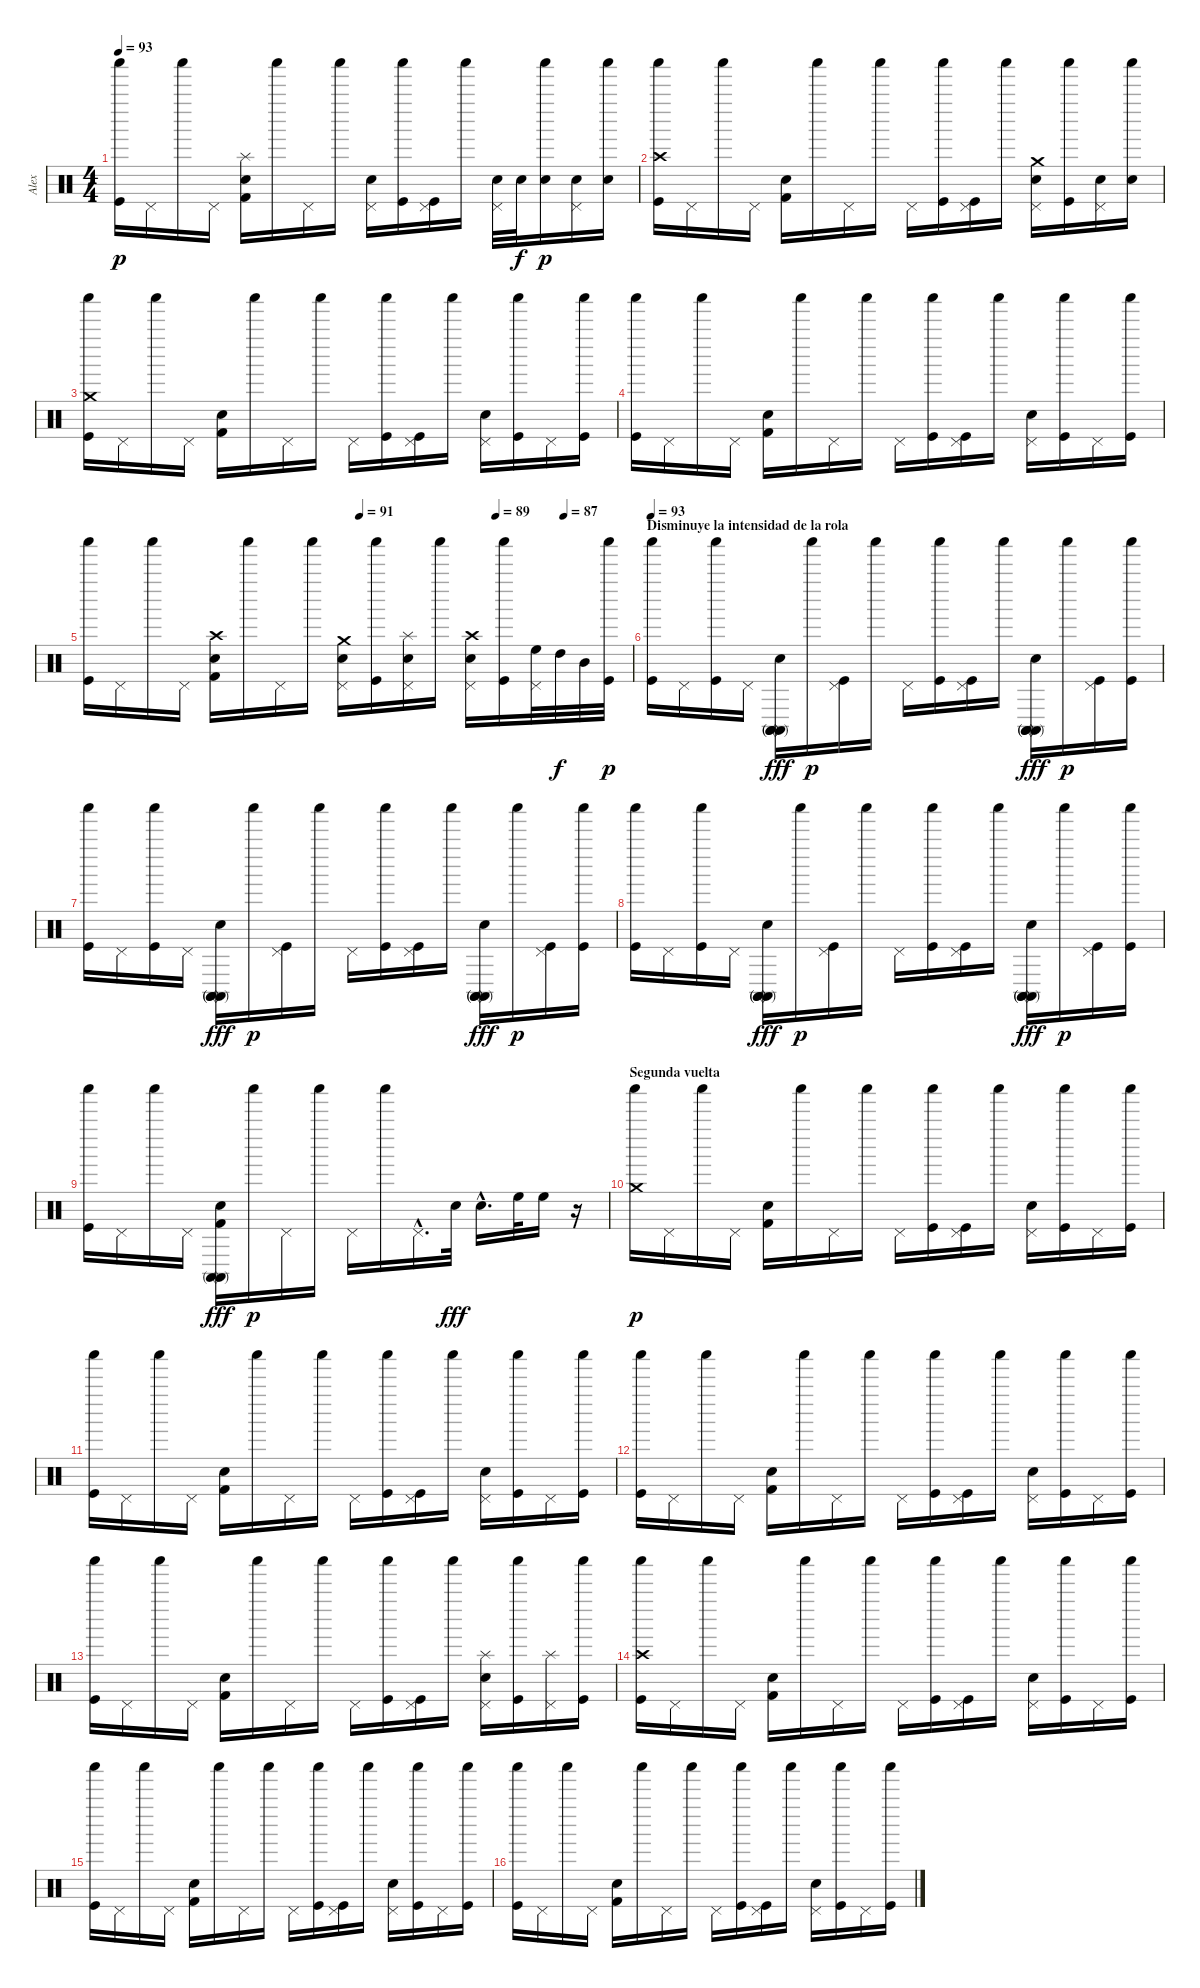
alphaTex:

\track ("Alex" "Alex") {instrument percussion}
\staff {score}
\articulation defaults
\ts (4 4)
\tempo 93
\clef neutral
\ks c
("Kick (hit)" "Shaker (hit)").16{dy p} "Pedal Hi-Hat (hit)".16 "Shaker (hit)".16 "Pedal Hi-Hat (hit)".16 ("Electric Snare (hit)" "Kick (hit) 2" "Splash (hit)").16 "Shaker (hit)".16 "Pedal Hi-Hat (hit)".16 "Shaker (hit)".16 ("Electric Snare (hit)" "Pedal Hi-Hat (hit)").16 ("Kick (hit)" "Shaker (hit)").16 ("Kick (hit)" "Pedal Hi-Hat (hit)").16 "Shaker (hit)".16 ("Electric Snare (hit)" "Pedal Hi-Hat (hit)").32 "Electric Snare (hit)".32{dy f} ("Electric Snare (hit)" "Shaker (hit)").16{dy p} ("Electric Snare (hit)" "Pedal Hi-Hat (hit)").16 ("Electric Snare (hit)" "Shaker (hit)").16 |
("Kick (hit)" "Shaker (hit)" "Crash high (hit)").16 "Pedal Hi-Hat (hit)".16 "Shaker (hit)".16 "Pedal Hi-Hat (hit)".16 ("Electric Snare (hit)" "Kick (hit) 2").16 "Shaker (hit)".16 "Pedal Hi-Hat (hit)".16 "Shaker (hit)".16 "Pedal Hi-Hat (hit)".16 ("Kick (hit)" "Shaker (hit)").16 ("Kick (hit)" "Pedal Hi-Hat (hit)").16 "Shaker (hit)".16 ("Electric Snare (hit)" "Pedal Hi-Hat (hit)" "Crash medium (hit)").16 ("Kick (hit)" "Shaker (hit)").16 ("Electric Snare (hit)" "Pedal Hi-Hat (hit)").16 ("Electric Snare (hit)" "Shaker (hit)").16 |
("Kick (hit)" "Shaker (hit)" "Crash medium (hit)").16 "Pedal Hi-Hat (hit)".16 "Shaker (hit)".16 "Pedal Hi-Hat (hit)".16 ("Electric Snare (hit)" "Kick (hit) 2").16 "Shaker (hit)".16 "Pedal Hi-Hat (hit)".16 "Shaker (hit)".16 "Pedal Hi-Hat (hit)".16 ("Kick (hit)" "Shaker (hit)").16 ("Kick (hit)" "Pedal Hi-Hat (hit)").16 "Shaker (hit)".16 ("Electric Snare (hit)" "Pedal Hi-Hat (hit)").16 ("Kick (hit)" "Shaker (hit)").16 "Pedal Hi-Hat (hit)".16 ("Kick (hit)" "Shaker (hit)").16 |
("Kick (hit)" "Shaker (hit)").16 "Pedal Hi-Hat (hit)".16 "Shaker (hit)".16 "Pedal Hi-Hat (hit)".16 ("Electric Snare (hit)" "Kick (hit) 2").16 "Shaker (hit)".16 "Pedal Hi-Hat (hit)".16 "Shaker (hit)".16 "Pedal Hi-Hat (hit)".16 ("Kick (hit)" "Shaker (hit)").16 ("Kick (hit)" "Pedal Hi-Hat (hit)").16 "Shaker (hit)".16 ("Electric Snare (hit)" "Pedal Hi-Hat (hit)").16 ("Kick (hit)" "Shaker (hit)").16 "Pedal Hi-Hat (hit)".16 ("Kick (hit)" "Shaker (hit)").16 |
\tempo (91 0.5)
\tempo (89 0.75)
\tempo (87 0.875)
("Kick (hit)" "Shaker (hit)").16 "Pedal Hi-Hat (hit)".16 "Shaker (hit)".16 "Pedal Hi-Hat (hit)".16 ("Electric Snare (hit)" "Kick (hit) 2" "Crash high (hit)").16 "Shaker (hit)".16 "Pedal Hi-Hat (hit)".16 "Shaker (hit)".16 ("Electric Snare (hit)" "Pedal Hi-Hat (hit)" "Crash medium (hit)").16 ("Kick (hit)" "Shaker (hit)").16 ("Electric Snare (hit)" "Pedal Hi-Hat (hit)" "Splash (hit)").16 "Shaker (hit)".16 ("Electric Snare (hit)" "Pedal Hi-Hat (hit)" "Crash high (hit)").16 ("Kick (hit)" "Shaker (hit)").16 ("High Floor Tom (hit)" "Pedal Hi-Hat (hit)").32 "High Tom (hit)".32{dy f} "Mid Tom (hit)".32 ("Kick (hit)" "Shaker (hit)").32{dy p} |
\section ("" "Disminuye la intensidad de la rola")
\tempo 93
("Kick (hit)" "Shaker (hit)").16{volume 13} "Pedal Hi-Hat (hit)".16 ("Kick (hit)" "Shaker (hit)").16 "Pedal Hi-Hat (hit)".16 ("Electric Snare (hit)" "Conga high (mute)" "Conga high (mute)" "Conga high (mute)").16{dy fff} "Shaker (hit)".16{dy p} ("Kick (hit)" "Pedal Hi-Hat (hit)").16 "Shaker (hit)".16 "Pedal Hi-Hat (hit)".16 ("Kick (hit)" "Shaker (hit)").16 ("Kick (hit)" "Pedal Hi-Hat (hit)").16 "Shaker (hit)".16 ("Electric Snare (hit)" "Conga high (mute)" "Conga high (mute)" "Conga high (mute)").16{dy fff} "Shaker (hit)".16{dy p} ("Kick (hit)" "Pedal Hi-Hat (hit)").16 ("Kick (hit)" "Shaker (hit)").16 |
("Kick (hit)" "Shaker (hit)").16{volume 13} "Pedal Hi-Hat (hit)".16 ("Kick (hit)" "Shaker (hit)").16 "Pedal Hi-Hat (hit)".16 ("Electric Snare (hit)" "Conga high (mute)" "Conga high (mute)" "Conga high (mute)").16{dy fff} "Shaker (hit)".16{dy p} ("Kick (hit)" "Pedal Hi-Hat (hit)").16 "Shaker (hit)".16 "Pedal Hi-Hat (hit)".16 ("Kick (hit)" "Shaker (hit)").16 ("Kick (hit)" "Pedal Hi-Hat (hit)").16 "Shaker (hit)".16 ("Electric Snare (hit)" "Conga high (mute)" "Conga high (mute)" "Conga high (mute)").16{dy fff} "Shaker (hit)".16{dy p} ("Kick (hit)" "Pedal Hi-Hat (hit)").16 ("Kick (hit)" "Shaker (hit)").16 |
("Kick (hit)" "Shaker (hit)").16{volume 13} "Pedal Hi-Hat (hit)".16 ("Kick (hit)" "Shaker (hit)").16 "Pedal Hi-Hat (hit)".16 ("Electric Snare (hit)" "Conga high (mute)" "Conga high (mute)" "Conga high (mute)").16{dy fff} "Shaker (hit)".16{dy p} ("Kick (hit)" "Pedal Hi-Hat (hit)").16 "Shaker (hit)".16 "Pedal Hi-Hat (hit)".16 ("Kick (hit)" "Shaker (hit)").16 ("Kick (hit)" "Pedal Hi-Hat (hit)").16 "Shaker (hit)".16 ("Electric Snare (hit)" "Conga high (mute)" "Conga high (mute)" "Conga high (mute)").16{dy fff} "Shaker (hit)".16{dy p} ("Kick (hit)" "Pedal Hi-Hat (hit)").16 ("Kick (hit)" "Shaker (hit)").16 |
("Kick (hit)" "Shaker (hit)").16 "Pedal Hi-Hat (hit)".16 "Shaker (hit)".16 "Pedal Hi-Hat (hit)".16 ("Electric Snare (hit)" "Kick (hit) 2" "Conga high (mute)" "Conga high (mute)").16{dy fff} "Shaker (hit)".16{dy p} "Pedal Hi-Hat (hit)".16 "Shaker (hit)".16 "Pedal Hi-Hat (hit)".16 "Shaker (hit)".16 "Pedal Hi-Hat (hit)"{hac}.16{d} "Electric Snare (hit)".32{dy fff volume 16} "Electric Snare (hit)"{hac}.16{d} "High Floor Tom (hit)".32 "High Floor Tom (hit)".16 r.16 |
\section ("" "Segunda vuelta")
("Crash medium (hit)" "Shaker (hit)").16{dy p} "Pedal Hi-Hat (hit)".16 "Shaker (hit)".16 "Pedal Hi-Hat (hit)".16 ("Electric Snare (hit)" "Kick (hit) 2").16 "Shaker (hit)".16 "Pedal Hi-Hat (hit)".16 "Shaker (hit)".16 "Pedal Hi-Hat (hit)".16 ("Kick (hit)" "Shaker (hit)").16 ("Kick (hit)" "Pedal Hi-Hat (hit)").16 "Shaker (hit)".16 ("Electric Snare (hit)" "Pedal Hi-Hat (hit)").16 ("Kick (hit)" "Shaker (hit)").16 "Pedal Hi-Hat (hit)".16 ("Kick (hit)" "Shaker (hit)").16 |
("Kick (hit)" "Shaker (hit)").16 "Pedal Hi-Hat (hit)".16 "Shaker (hit)".16 "Pedal Hi-Hat (hit)".16 ("Electric Snare (hit)" "Kick (hit) 2").16 "Shaker (hit)".16 "Pedal Hi-Hat (hit)".16 "Shaker (hit)".16 "Pedal Hi-Hat (hit)".16 ("Kick (hit)" "Shaker (hit)").16 ("Kick (hit)" "Pedal Hi-Hat (hit)").16 "Shaker (hit)".16 ("Electric Snare (hit)" "Pedal Hi-Hat (hit)").16 ("Kick (hit)" "Shaker (hit)").16 "Pedal Hi-Hat (hit)".16 ("Kick (hit)" "Shaker (hit)").16 |
("Kick (hit)" "Shaker (hit)").16 "Pedal Hi-Hat (hit)".16 "Shaker (hit)".16 "Pedal Hi-Hat (hit)".16 ("Electric Snare (hit)" "Kick (hit) 2").16 "Shaker (hit)".16 "Pedal Hi-Hat (hit)".16 "Shaker (hit)".16 "Pedal Hi-Hat (hit)".16 ("Kick (hit)" "Shaker (hit)").16 ("Kick (hit)" "Pedal Hi-Hat (hit)").16 "Shaker (hit)".16 ("Electric Snare (hit)" "Pedal Hi-Hat (hit)").16 ("Kick (hit)" "Shaker (hit)").16 "Pedal Hi-Hat (hit)".16 ("Kick (hit)" "Shaker (hit)").16 |
("Kick (hit)" "Shaker (hit)").16 "Pedal Hi-Hat (hit)".16 "Shaker (hit)".16 "Pedal Hi-Hat (hit)".16 ("Electric Snare (hit)" "Kick (hit) 2").16 "Shaker (hit)".16 "Pedal Hi-Hat (hit)".16 "Shaker (hit)".16 "Pedal Hi-Hat (hit)".16 ("Kick (hit)" "Shaker (hit)").16 ("Kick (hit)" "Pedal Hi-Hat (hit)").16 "Shaker (hit)".16 ("Electric Snare (hit)" "Pedal Hi-Hat (hit)" "Splash (hit)").16 ("Kick (hit)" "Shaker (hit)").16 ("Pedal Hi-Hat (hit)" "Splash (hit)").16 ("Kick (hit)" "Shaker (hit)").16 |
("Kick (hit)" "Shaker (hit)" "Crash high (hit)").16 "Pedal Hi-Hat (hit)".16 "Shaker (hit)".16 "Pedal Hi-Hat (hit)".16 ("Electric Snare (hit)" "Kick (hit) 2").16 "Shaker (hit)".16 "Pedal Hi-Hat (hit)".16 "Shaker (hit)".16 "Pedal Hi-Hat (hit)".16 ("Kick (hit)" "Shaker (hit)").16 ("Kick (hit)" "Pedal Hi-Hat (hit)").16 "Shaker (hit)".16 ("Electric Snare (hit)" "Pedal Hi-Hat (hit)").16 ("Kick (hit)" "Shaker (hit)").16 "Pedal Hi-Hat (hit)".16 ("Kick (hit)" "Shaker (hit)").16 |
("Kick (hit)" "Shaker (hit)").16 "Pedal Hi-Hat (hit)".16 "Shaker (hit)".16 "Pedal Hi-Hat (hit)".16 ("Electric Snare (hit)" "Kick (hit) 2").16 "Shaker (hit)".16 "Pedal Hi-Hat (hit)".16 "Shaker (hit)".16 "Pedal Hi-Hat (hit)".16 ("Kick (hit)" "Shaker (hit)").16 ("Kick (hit)" "Pedal Hi-Hat (hit)").16 "Shaker (hit)".16 ("Electric Snare (hit)" "Pedal Hi-Hat (hit)").16 ("Kick (hit)" "Shaker (hit)").16 "Pedal Hi-Hat (hit)".16 ("Kick (hit)" "Shaker (hit)").16 |
("Kick (hit)" "Shaker (hit)").16 "Pedal Hi-Hat (hit)".16 "Shaker (hit)".16 "Pedal Hi-Hat (hit)".16 ("Electric Snare (hit)" "Kick (hit) 2").16 "Shaker (hit)".16 "Pedal Hi-Hat (hit)".16 "Shaker (hit)".16 "Pedal Hi-Hat (hit)".16 ("Kick (hit)" "Shaker (hit)").16 ("Kick (hit)" "Pedal Hi-Hat (hit)").16 "Shaker (hit)".16 ("Electric Snare (hit)" "Pedal Hi-Hat (hit)").16 ("Kick (hit)" "Shaker (hit)").16 "Pedal Hi-Hat (hit)".16 ("Kick (hit)" "Shaker (hit)").16
